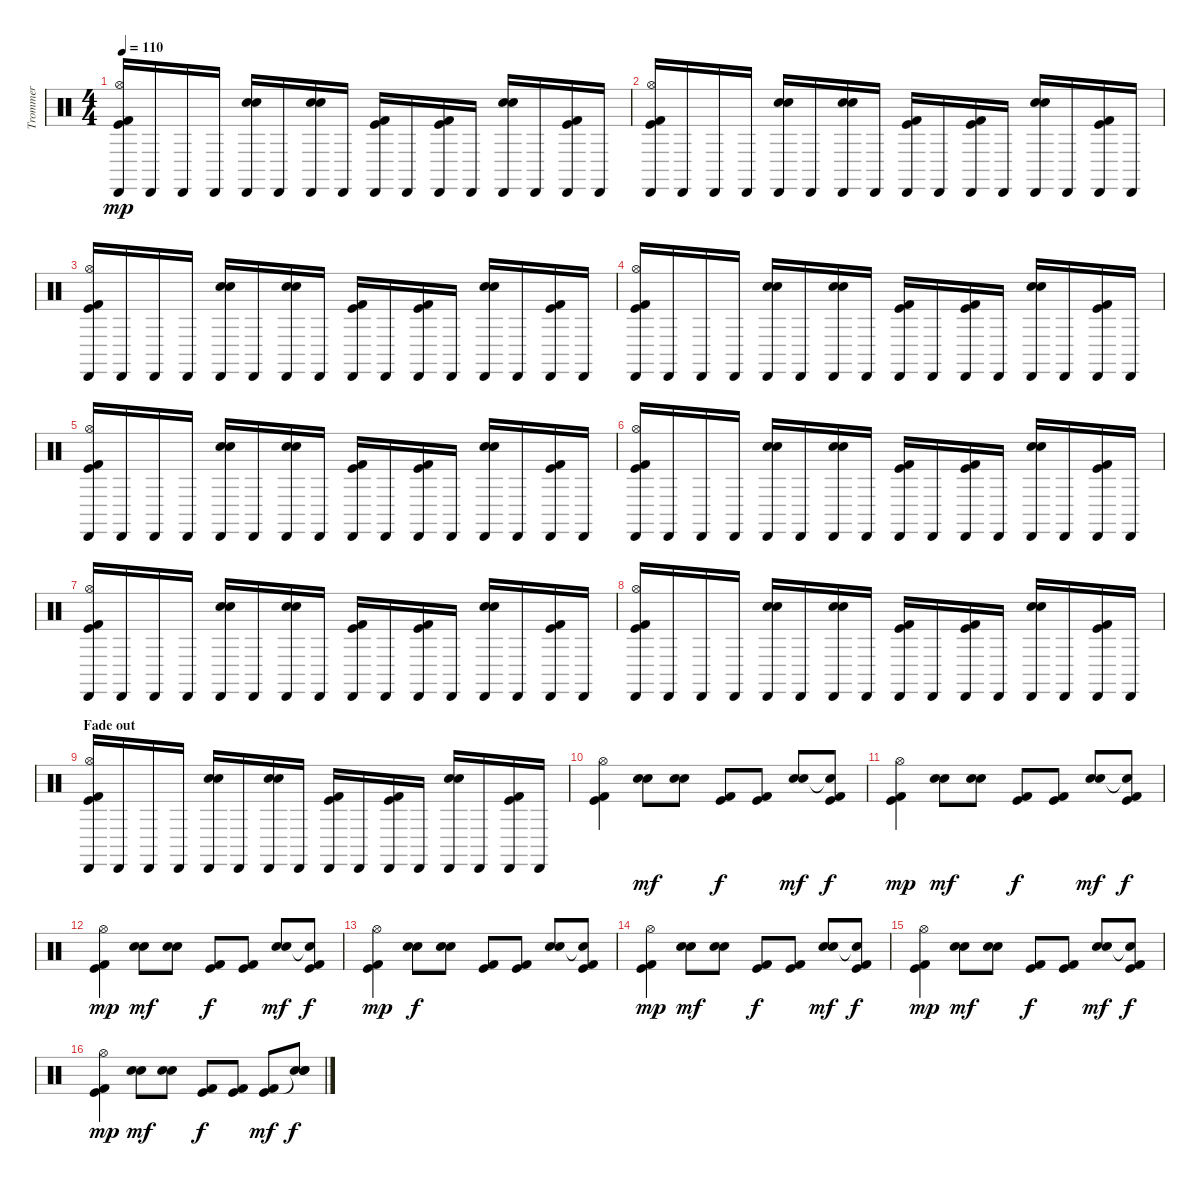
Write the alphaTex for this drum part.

\track ("Trommer" "Trommer") {instrument percussion}
\staff {score}
\articulation defaults
\ts (4 4)
\tempo 110
\clef neutral
\ks c
("Cabasa (hit)" "Hi-Hat (open)" "Kick (hit)" "Kick (hit) 2").16{dy mp} "Cabasa (hit)".16 "Cabasa (hit)".16 "Cabasa (hit)".16 ("Cabasa (hit)" "Snare (hit) 2" "Electric Snare (hit)").16 "Cabasa (hit)".16 ("Cabasa (hit)" "Snare (hit) 2" "Electric Snare (hit)").16 "Cabasa (hit)".16 ("Cabasa (hit)" "Kick (hit)" "Kick (hit) 2").16 "Cabasa (hit)".16 ("Cabasa (hit)" "Kick (hit) 2" "Kick (hit)").16 "Cabasa (hit)".16 ("Cabasa (hit)" "Snare (hit) 2" "Electric Snare (hit)").16 "Cabasa (hit)".16 ("Cabasa (hit)" "Kick (hit) 2" "Kick (hit)").16 "Cabasa (hit)".16 |
("Cabasa (hit)" "Hi-Hat (open)" "Kick (hit)" "Kick (hit) 2").16 "Cabasa (hit)".16 "Cabasa (hit)".16 "Cabasa (hit)".16 ("Cabasa (hit)" "Snare (hit) 2" "Electric Snare (hit)").16 "Cabasa (hit)".16 ("Cabasa (hit)" "Snare (hit) 2" "Electric Snare (hit)").16 "Cabasa (hit)".16 ("Cabasa (hit)" "Kick (hit)" "Kick (hit) 2").16 "Cabasa (hit)".16 ("Cabasa (hit)" "Kick (hit) 2" "Kick (hit)").16 "Cabasa (hit)".16 ("Cabasa (hit)" "Snare (hit) 2" "Electric Snare (hit)").16 "Cabasa (hit)".16 ("Cabasa (hit)" "Kick (hit) 2" "Kick (hit)").16 "Cabasa (hit)".16 |
("Cabasa (hit)" "Hi-Hat (open)" "Kick (hit)" "Kick (hit) 2").16 "Cabasa (hit)".16 "Cabasa (hit)".16 "Cabasa (hit)".16 ("Cabasa (hit)" "Snare (hit) 2" "Electric Snare (hit)").16 "Cabasa (hit)".16 ("Cabasa (hit)" "Snare (hit) 2" "Electric Snare (hit)").16 "Cabasa (hit)".16 ("Cabasa (hit)" "Kick (hit)" "Kick (hit) 2").16 "Cabasa (hit)".16 ("Cabasa (hit)" "Kick (hit) 2" "Kick (hit)").16 "Cabasa (hit)".16 ("Cabasa (hit)" "Snare (hit) 2" "Electric Snare (hit)").16 "Cabasa (hit)".16 ("Cabasa (hit)" "Kick (hit) 2" "Kick (hit)").16 "Cabasa (hit)".16 |
("Cabasa (hit)" "Hi-Hat (open)" "Kick (hit)" "Kick (hit) 2").16 "Cabasa (hit)".16 "Cabasa (hit)".16 "Cabasa (hit)".16 ("Cabasa (hit)" "Snare (hit) 2" "Electric Snare (hit)").16 "Cabasa (hit)".16 ("Cabasa (hit)" "Snare (hit) 2" "Electric Snare (hit)").16 "Cabasa (hit)".16 ("Cabasa (hit)" "Kick (hit)" "Kick (hit) 2").16 "Cabasa (hit)".16 ("Cabasa (hit)" "Kick (hit) 2" "Kick (hit)").16 "Cabasa (hit)".16 ("Cabasa (hit)" "Snare (hit) 2" "Electric Snare (hit)").16 "Cabasa (hit)".16 ("Cabasa (hit)" "Kick (hit) 2" "Kick (hit)").16 "Cabasa (hit)".16 |
("Cabasa (hit)" "Hi-Hat (open)" "Kick (hit)" "Kick (hit) 2").16 "Cabasa (hit)".16 "Cabasa (hit)".16 "Cabasa (hit)".16 ("Cabasa (hit)" "Snare (hit) 2" "Electric Snare (hit)").16 "Cabasa (hit)".16 ("Cabasa (hit)" "Snare (hit) 2" "Electric Snare (hit)").16 "Cabasa (hit)".16 ("Cabasa (hit)" "Kick (hit)" "Kick (hit) 2").16 "Cabasa (hit)".16 ("Cabasa (hit)" "Kick (hit) 2" "Kick (hit)").16 "Cabasa (hit)".16 ("Cabasa (hit)" "Snare (hit) 2" "Electric Snare (hit)").16 "Cabasa (hit)".16 ("Cabasa (hit)" "Kick (hit) 2" "Kick (hit)").16 "Cabasa (hit)".16 |
("Cabasa (hit)" "Hi-Hat (open)" "Kick (hit)" "Kick (hit) 2").16 "Cabasa (hit)".16 "Cabasa (hit)".16 "Cabasa (hit)".16 ("Cabasa (hit)" "Snare (hit) 2" "Electric Snare (hit)").16 "Cabasa (hit)".16 ("Cabasa (hit)" "Snare (hit) 2" "Electric Snare (hit)").16 "Cabasa (hit)".16 ("Cabasa (hit)" "Kick (hit)" "Kick (hit) 2").16 "Cabasa (hit)".16 ("Cabasa (hit)" "Kick (hit) 2" "Kick (hit)").16 "Cabasa (hit)".16 ("Cabasa (hit)" "Snare (hit) 2" "Electric Snare (hit)").16 "Cabasa (hit)".16 ("Cabasa (hit)" "Kick (hit) 2" "Kick (hit)").16 "Cabasa (hit)".16 |
("Cabasa (hit)" "Hi-Hat (open)" "Kick (hit)" "Kick (hit) 2").16 "Cabasa (hit)".16 "Cabasa (hit)".16 "Cabasa (hit)".16 ("Cabasa (hit)" "Snare (hit) 2" "Electric Snare (hit)").16 "Cabasa (hit)".16 ("Cabasa (hit)" "Snare (hit) 2" "Electric Snare (hit)").16 "Cabasa (hit)".16 ("Cabasa (hit)" "Kick (hit)" "Kick (hit) 2").16 "Cabasa (hit)".16 ("Cabasa (hit)" "Kick (hit) 2" "Kick (hit)").16 "Cabasa (hit)".16 ("Cabasa (hit)" "Snare (hit) 2" "Electric Snare (hit)").16 "Cabasa (hit)".16 ("Cabasa (hit)" "Kick (hit) 2" "Kick (hit)").16 "Cabasa (hit)".16 |
("Cabasa (hit)" "Hi-Hat (open)" "Kick (hit)" "Kick (hit) 2").16 "Cabasa (hit)".16 "Cabasa (hit)".16 "Cabasa (hit)".16 ("Cabasa (hit)" "Snare (hit) 2" "Electric Snare (hit)").16 "Cabasa (hit)".16 ("Cabasa (hit)" "Snare (hit) 2" "Electric Snare (hit)").16 "Cabasa (hit)".16 ("Cabasa (hit)" "Kick (hit)" "Kick (hit) 2").16 "Cabasa (hit)".16 ("Cabasa (hit)" "Kick (hit) 2" "Kick (hit)").16 "Cabasa (hit)".16 ("Cabasa (hit)" "Snare (hit) 2" "Electric Snare (hit)").16 "Cabasa (hit)".16 ("Cabasa (hit)" "Kick (hit) 2" "Kick (hit)").16 "Cabasa (hit)".16 |
\section ("" "Fade out")
("Cabasa (hit)" "Hi-Hat (open)" "Kick (hit)" "Kick (hit) 2").16{volume 7} "Cabasa (hit)".16 "Cabasa (hit)".16 "Cabasa (hit)".16 ("Cabasa (hit)" "Snare (hit) 2" "Electric Snare (hit)").16 "Cabasa (hit)".16 ("Cabasa (hit)" "Snare (hit) 2" "Electric Snare (hit)").16 "Cabasa (hit)".16 ("Cabasa (hit)" "Kick (hit)" "Kick (hit) 2").16 "Cabasa (hit)".16 ("Cabasa (hit)" "Kick (hit) 2" "Kick (hit)").16 "Cabasa (hit)".16 ("Cabasa (hit)" "Snare (hit) 2" "Electric Snare (hit)").16 "Cabasa (hit)".16 ("Cabasa (hit)" "Kick (hit) 2" "Kick (hit)").16 "Cabasa (hit)".16 |
("Hi-Hat (open)" "Kick (hit)" "Kick (hit) 2").4 ("Electric Snare (hit)" "Snare (hit) 2").8{dy mf} ("Snare (hit) 2" "Electric Snare (hit)").8 ("Kick (hit) 2" "Kick (hit)").8{dy f volume 6} ("Kick (hit)" "Kick (hit) 2").8 ("Snare (hit) 2" "Electric Snare (hit)").8{dy mf} ("Snare (hit)"{t} "Kick (hit)" "Kick (hit) 2").8{dy f} |
("Hi-Hat (open)" "Kick (hit)" "Kick (hit) 2").4{dy mp} ("Electric Snare (hit)" "Snare (hit) 2").8{dy mf} ("Snare (hit) 2" "Electric Snare (hit)").8 ("Kick (hit) 2" "Kick (hit)").8{dy f} ("Kick (hit)" "Kick (hit) 2").8{volume 4} ("Snare (hit) 2" "Electric Snare (hit)").8{dy mf} ("Snare (hit)"{t} "Kick (hit)" "Kick (hit) 2").8{dy f} |
("Hi-Hat (open)" "Kick (hit)" "Kick (hit) 2").4{dy mp} ("Electric Snare (hit)" "Snare (hit) 2").8{dy mf volume 2} ("Snare (hit) 2" "Electric Snare (hit)").8 ("Kick (hit) 2" "Kick (hit)").8{dy f} ("Kick (hit)" "Kick (hit) 2").8 ("Snare (hit) 2" "Electric Snare (hit)").8{dy mf} ("Snare (hit)"{t} "Kick (hit)" "Kick (hit) 2").8{dy f} |
("Hi-Hat (open)" "Kick (hit)" "Kick (hit) 2").4{dy mp volume 0} ("Electric Snare (hit)" "Snare (hit) 2").8{dy f} ("Snare (hit) 2" "Electric Snare (hit)").8 ("Kick (hit) 2" "Kick (hit)").8 ("Kick (hit)" "Kick (hit) 2").8 ("Snare (hit) 2" "Electric Snare (hit)").8 ("Snare (hit)"{t} "Kick (hit)" "Kick (hit) 2").8 |
("Hi-Hat (open)" "Kick (hit)" "Kick (hit) 2").4{dy mp} ("Electric Snare (hit)" "Snare (hit) 2").8{dy mf} ("Snare (hit) 2" "Electric Snare (hit)").8 ("Kick (hit) 2" "Kick (hit)").8{dy f} ("Kick (hit)" "Kick (hit) 2").8 ("Snare (hit) 2" "Electric Snare (hit)").8{dy mf} ("Snare (hit)"{t} "Kick (hit)" "Kick (hit) 2").8{dy f} |
("Hi-Hat (open)" "Kick (hit)" "Kick (hit) 2").4{dy mp} ("Electric Snare (hit)" "Snare (hit) 2").8{dy mf} ("Snare (hit) 2" "Electric Snare (hit)").8 ("Kick (hit) 2" "Kick (hit)").8{dy f} ("Kick (hit)" "Kick (hit) 2").8 ("Snare (hit) 2" "Electric Snare (hit)").8{dy mf} ("Snare (hit)"{t} "Kick (hit)" "Kick (hit) 2").8{dy f} |
("Hi-Hat (open)" "Kick (hit)" "Kick (hit) 2").4{dy mp} ("Electric Snare (hit)" "Snare (hit) 2").8{dy mf} ("Snare (hit) 2" "Electric Snare (hit)").8 ("Kick (hit) 2" "Kick (hit)").8{dy f} ("Kick (hit)" "Kick (hit) 2").8 ("Kick (hit) 2" "Kick (hit)").8{dy mf} ("Snare (hit)"{t} "Snare (hit) 2" "Electric Snare (hit)").8{dy f}
